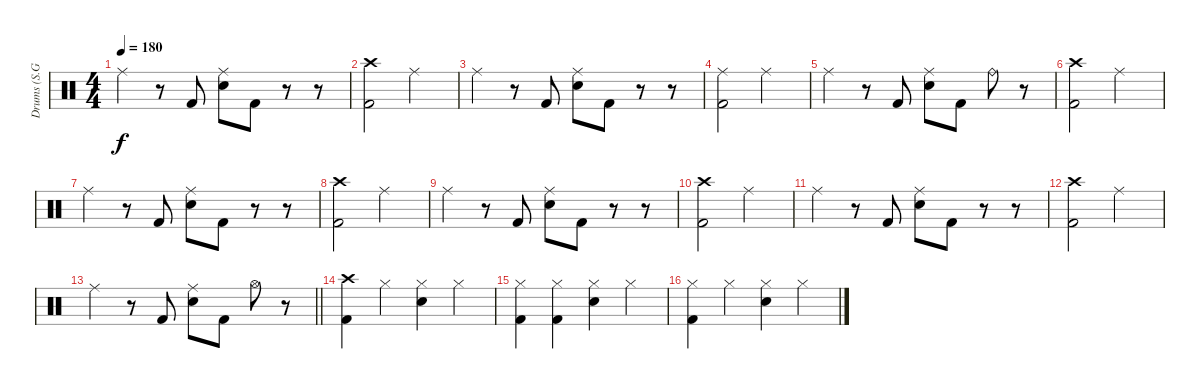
\track ("Drums (S.G. Yim)" "Drums (S.G") {instrument percussion}
\staff {score}
\articulation defaults
\ts (4 4)
\tempo 180
\clef neutral
\ks c "Ride (middle)".4{dy f}
r.8 "Kick (hit) 2".8 ("Ride (middle)" "Snare (hit) 2").8 "Kick (hit) 2".8 r.8 r.8 |
("Crash high (hit)" "Kick (hit) 2").2 "Ride (middle)".2 |
"Ride (middle)".4 r.8 "Kick (hit) 2".8 ("Ride (middle)" "Snare (hit) 2").8 "Kick (hit) 2".8 r.8 r.8 |
("Ride (middle)" "Kick (hit) 2").2 "Ride (middle)".2 |
"Ride (middle)".4 r.8 "Kick (hit) 2".8 ("Ride (middle)" "Snare (hit) 2").8 "Kick (hit) 2".8 "Ride (bell)".8 r.8 |
("Crash high (hit)" "Kick (hit) 2").2 "Ride (middle)".2 |
"Ride (middle)".4 r.8 "Kick (hit) 2".8 ("Ride (middle)" "Snare (hit) 2").8 "Kick (hit) 2".8 r.8 r.8 |
("Crash high (hit)" "Kick (hit) 2").2 "Ride (middle)".2 |
"Ride (middle)".4 r.8 "Kick (hit) 2".8 ("Ride (middle)" "Snare (hit) 2").8 "Kick (hit) 2".8 r.8 r.8 |
("Crash high (hit)" "Kick (hit) 2").2 "Ride (middle)".2 |
"Ride (middle)".4 r.8 "Kick (hit) 2".8 ("Ride (middle)" "Snare (hit) 2").8 "Kick (hit) 2".8 r.8 r.8 |
("Crash high (hit)" "Kick (hit) 2").2 "Ride (middle)".2 |
\barLineRight lightlight "Ride (middle)".4
r.8 "Kick (hit) 2".8 ("Ride (middle)" "Snare (hit) 2").8 "Kick (hit) 2".8 "Hi-Hat (open)".8 r.8 |
\section ("" "")
("Crash high (hit)" "Kick (hit) 2").4 "Hi-Hat (closed)".4 ("Hi-Hat (closed)" "Snare (hit) 2").4 "Hi-Hat (closed)".4 |
("Hi-Hat (closed)" "Kick (hit) 2").4 ("Hi-Hat (closed)" "Kick (hit) 2").4 ("Hi-Hat (closed)" "Snare (hit) 2").4 "Hi-Hat (closed)".4 |
("Hi-Hat (closed)" "Kick (hit) 2").4 "Hi-Hat (closed)".4 ("Hi-Hat (closed)" "Snare (hit) 2").4 "Hi-Hat (closed)".4
